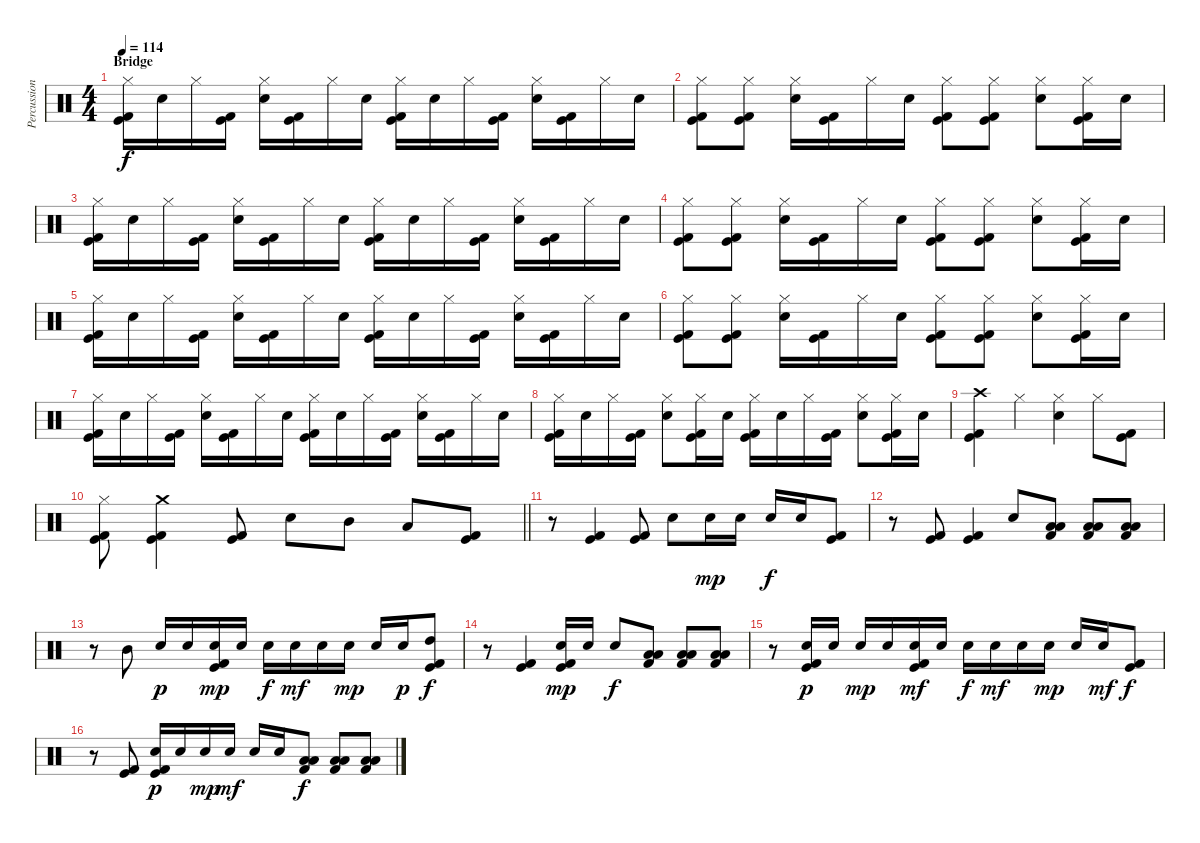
\track ("Percussion" "Percussion") {instrument percussion}
\staff {score}
\articulation defaults
\ts (4 4)
\section ("" "Bridge")
\tempo 114
\clef neutral
\ks c
("Hi-Hat (closed)" "Kick (hit)" "Kick (hit) 2").16{dy f} "Electric Snare (hit)".16 "Hi-Hat (closed)".16 ("Kick (hit)" "Kick (hit) 2").16 ("Hi-Hat (closed)" "Electric Snare (hit)").16 ("Kick (hit)" "Kick (hit) 2").16 "Hi-Hat (closed)".16 "Electric Snare (hit)".16 ("Hi-Hat (closed)" "Kick (hit)" "Kick (hit) 2").16 "Electric Snare (hit)".16 "Hi-Hat (closed)".16 ("Kick (hit)" "Kick (hit) 2").16 ("Hi-Hat (closed)" "Electric Snare (hit)").16 ("Kick (hit)" "Kick (hit) 2").16 "Hi-Hat (closed)".16 "Electric Snare (hit)".16 |
("Hi-Hat (closed)" "Kick (hit)" "Kick (hit) 2").8 ("Hi-Hat (closed)" "Kick (hit)" "Kick (hit) 2").8 ("Hi-Hat (closed)" "Electric Snare (hit)").16 ("Kick (hit)" "Kick (hit) 2").16 "Hi-Hat (closed)".16 "Electric Snare (hit)".16 ("Hi-Hat (closed)" "Kick (hit)" "Kick (hit) 2").8 ("Hi-Hat (closed)" "Kick (hit)" "Kick (hit) 2").8 ("Hi-Hat (closed)" "Electric Snare (hit)").8 ("Hi-Hat (closed)" "Kick (hit)" "Kick (hit) 2").16 "Electric Snare (hit)".16 |
("Hi-Hat (closed)" "Kick (hit)" "Kick (hit) 2").16 "Electric Snare (hit)".16 "Hi-Hat (closed)".16 ("Kick (hit)" "Kick (hit) 2").16 ("Hi-Hat (closed)" "Electric Snare (hit)").16 ("Kick (hit)" "Kick (hit) 2").16 "Hi-Hat (closed)".16 "Electric Snare (hit)".16 ("Hi-Hat (closed)" "Kick (hit)" "Kick (hit) 2").16 "Electric Snare (hit)".16 "Hi-Hat (closed)".16 ("Kick (hit)" "Kick (hit) 2").16 ("Hi-Hat (closed)" "Electric Snare (hit)").16 ("Kick (hit)" "Kick (hit) 2").16 "Hi-Hat (closed)".16 "Electric Snare (hit)".16 |
("Hi-Hat (closed)" "Kick (hit)" "Kick (hit) 2").8 ("Hi-Hat (closed)" "Kick (hit)" "Kick (hit) 2").8 ("Hi-Hat (closed)" "Electric Snare (hit)").16 ("Kick (hit)" "Kick (hit) 2").16 "Hi-Hat (closed)".16 "Electric Snare (hit)".16 ("Hi-Hat (closed)" "Kick (hit)" "Kick (hit) 2").8 ("Hi-Hat (closed)" "Kick (hit)" "Kick (hit) 2").8 ("Hi-Hat (closed)" "Electric Snare (hit)").8 ("Hi-Hat (closed)" "Kick (hit)" "Kick (hit) 2").16 "Electric Snare (hit)".16 |
("Hi-Hat (closed)" "Kick (hit)" "Kick (hit) 2").16 "Electric Snare (hit)".16 "Hi-Hat (closed)".16 ("Kick (hit)" "Kick (hit) 2").16 ("Hi-Hat (closed)" "Electric Snare (hit)").16 ("Kick (hit)" "Kick (hit) 2").16 "Hi-Hat (closed)".16 "Electric Snare (hit)".16 ("Hi-Hat (closed)" "Kick (hit)" "Kick (hit) 2").16 "Electric Snare (hit)".16 "Hi-Hat (closed)".16 ("Kick (hit)" "Kick (hit) 2").16 ("Hi-Hat (closed)" "Electric Snare (hit)").16 ("Kick (hit)" "Kick (hit) 2").16 "Hi-Hat (closed)".16 "Electric Snare (hit)".16 |
("Hi-Hat (closed)" "Kick (hit)" "Kick (hit) 2").8 ("Hi-Hat (closed)" "Kick (hit)" "Kick (hit) 2").8 ("Hi-Hat (closed)" "Electric Snare (hit)").16 ("Kick (hit)" "Kick (hit) 2").16 "Hi-Hat (closed)".16 "Electric Snare (hit)".16 ("Hi-Hat (closed)" "Kick (hit)" "Kick (hit) 2").8 ("Hi-Hat (closed)" "Kick (hit)" "Kick (hit) 2").8 ("Hi-Hat (closed)" "Electric Snare (hit)").8 ("Hi-Hat (closed)" "Kick (hit)" "Kick (hit) 2").16 "Electric Snare (hit)".16 |
("Hi-Hat (closed)" "Kick (hit)" "Kick (hit) 2").16 "Electric Snare (hit)".16 "Hi-Hat (closed)".16 ("Kick (hit)" "Kick (hit) 2").16 ("Hi-Hat (closed)" "Electric Snare (hit)").16 ("Kick (hit)" "Kick (hit) 2").16 "Hi-Hat (closed)".16 "Electric Snare (hit)".16 ("Hi-Hat (closed)" "Kick (hit)" "Kick (hit) 2").16 "Electric Snare (hit)".16 "Hi-Hat (closed)".16 ("Kick (hit)" "Kick (hit) 2").16 ("Hi-Hat (closed)" "Electric Snare (hit)").16 ("Kick (hit)" "Kick (hit) 2").16 "Hi-Hat (closed)".16 "Electric Snare (hit)".16 |
("Hi-Hat (closed)" "Kick (hit)" "Kick (hit) 2").16 "Electric Snare (hit)".16 "Hi-Hat (closed)".16 ("Kick (hit)" "Kick (hit) 2").16 ("Hi-Hat (closed)" "Electric Snare (hit)").8 ("Hi-Hat (closed)" "Kick (hit)" "Kick (hit) 2").16 "Electric Snare (hit)".16 ("Hi-Hat (closed)" "Kick (hit)" "Kick (hit) 2").16 "Electric Snare (hit)".16 "Hi-Hat (closed)".16 ("Kick (hit)" "Kick (hit) 2").16 ("Hi-Hat (closed)" "Electric Snare (hit)").8 ("Hi-Hat (closed)" "Kick (hit)" "Kick (hit) 2").16 "Electric Snare (hit)".16 |
("Crash high (hit)" "Kick (hit)" "Kick (hit) 2").4 "Hi-Hat (closed)".4 ("Hi-Hat (closed)" "Electric Snare (hit)").4 "Hi-Hat (closed)".8 ("Kick (hit)" "Kick (hit) 2").8 |
\barLineRight lightlight
("Hi-Hat (closed)" "Kick (hit)" "Kick (hit) 2").8 ("Crash medium (hit)" "Kick (hit)" "Kick (hit) 2").4 ("Kick (hit)" "Kick (hit) 2").8 "Electric Snare (hit)".8 "Mid Tom (hit)".8 "Low Tom (hit)".8 ("Kick (hit)" "Kick (hit) 2").8 |
\section ("" "")
r.8 ("Kick (hit)" "Kick (hit) 2").4 ("Kick (hit)" "Kick (hit) 2").8 "Snare (hit) 2".8 "Snare (hit) 2".16{dy mp} "Snare (hit) 2".16 "Snare (hit) 2".16{dy f} "Snare (hit) 2".16 ("Kick (hit)" "Kick (hit) 2").8 |
r.8 ("Kick (hit)" "Kick (hit) 2").8 ("Kick (hit)" "Kick (hit) 2").4 "Snare (hit) 2".8 ("Low Tom (hit)" "Low Floor Tom (hit)" "Kick (hit) 2").8 ("Low Tom (hit)" "Low Floor Tom (hit)" "Kick (hit) 2").8 ("Low Tom (hit)" "Low Floor Tom (hit)" "Kick (hit) 2").8 |
r.8 "Mid Tom (hit)".8 "Snare (hit) 2".16{dy p} "Snare (hit) 2".16 ("Snare (hit) 2" "Kick (hit)" "Kick (hit) 2").16{dy mp} "Snare (hit) 2".16 "Snare (hit) 2".16{dy f} "Snare (hit) 2".16{dy mf} "Snare (hit) 2".16 "Snare (hit) 2".16{dy mp} "Snare (hit) 2".16 "Snare (hit) 2".16{dy p} ("High Tom (hit)" "Kick (hit)" "Kick (hit) 2").8{dy f} |
r.8 ("Kick (hit)" "Kick (hit) 2").4 ("Snare (hit) 2" "Kick (hit)" "Kick (hit) 2").16{dy mp} "Snare (hit) 2".16 "Snare (hit) 2".8{dy f} ("Low Tom (hit)" "Low Floor Tom (hit)" "Kick (hit) 2").8 ("Low Tom (hit)" "Low Floor Tom (hit)" "Kick (hit) 2").8 ("Low Tom (hit)" "Low Floor Tom (hit)" "Kick (hit) 2").8 |
r.8 ("Snare (hit) 2" "Kick (hit)" "Kick (hit) 2").16{dy p} "Snare (hit) 2".16 "Snare (hit) 2".16{dy mp} "Snare (hit) 2".16 ("Snare (hit) 2" "Kick (hit)" "Kick (hit) 2").16{dy mf} "Snare (hit) 2".16 "Snare (hit) 2".16{dy f} "Snare (hit) 2".16{dy mf} "Snare (hit) 2".16 "Snare (hit) 2".16{dy mp} "Snare (hit) 2".16 "Snare (hit) 2".16{dy mf} ("Kick (hit)" "Kick (hit) 2").8{dy f} |
r.8 ("Kick (hit)" "Kick (hit) 2").8 ("Snare (hit) 2" "Kick (hit)" "Kick (hit) 2").16{dy p} "Snare (hit) 2".16 "Snare (hit) 2".16{dy mp} "Snare (hit) 2".16{dy mf} "Snare (hit) 2".16 "Snare (hit) 2".16 ("Low Tom (hit)" "Low Floor Tom (hit)" "Kick (hit) 2").8{dy f} ("Low Tom (hit)" "Low Floor Tom (hit)" "Kick (hit) 2").8 ("Low Tom (hit)" "Low Floor Tom (hit)" "Kick (hit) 2").8
